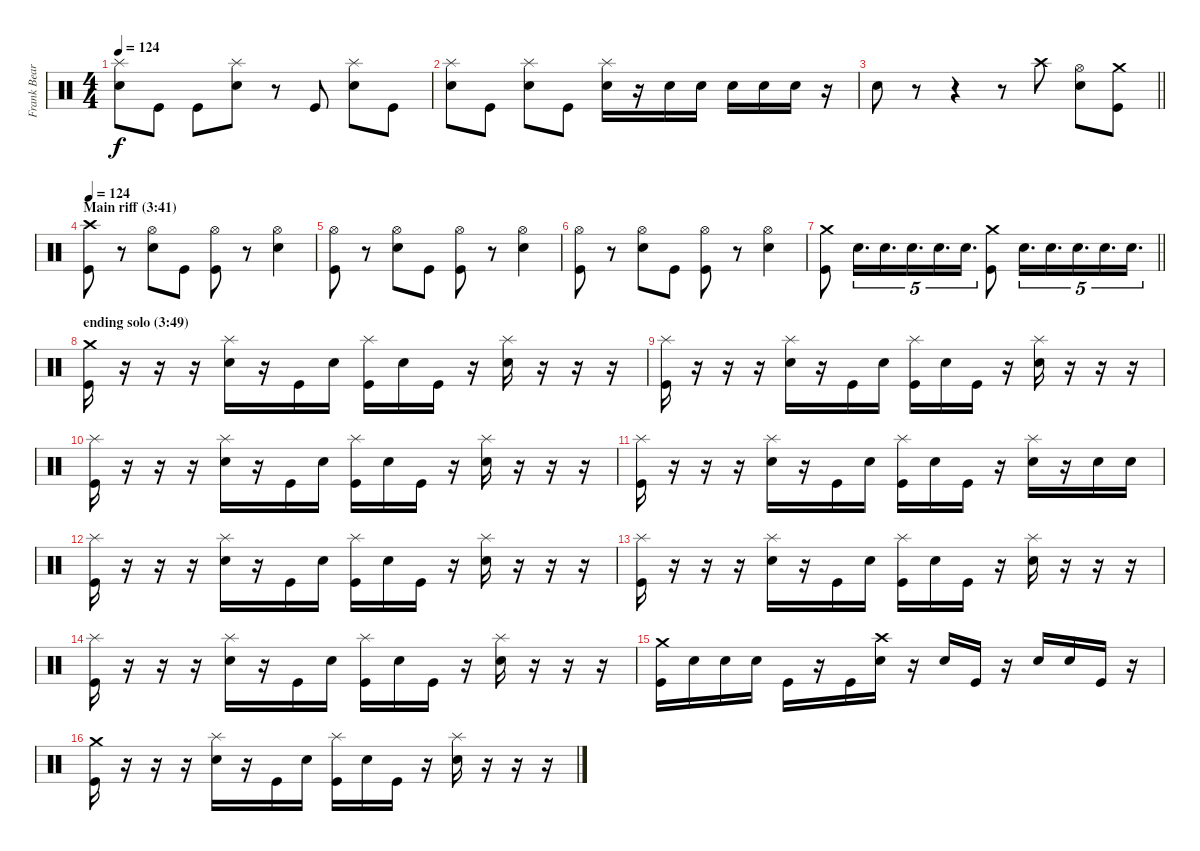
\track ("Frank Beard" "Frank Bear") {instrument percussion}
\staff {score}
\articulation defaults
\ts (4 4)
\tempo 124
\clef neutral
\ks c
("Splash (hit)" "Electric Snare (hit)").8{dy f} "Kick (hit)".8 "Kick (hit)".8 ("Splash (hit)" "Electric Snare (hit)").8 r.8 "Kick (hit)".8 ("Splash (hit)" "Electric Snare (hit)").8 "Kick (hit)".8 |
("Splash (hit)" "Electric Snare (hit)").8 "Kick (hit)".8 ("Splash (hit)" "Electric Snare (hit)").8 "Kick (hit)".8 ("Splash (hit)" "Electric Snare (hit)").16 r.16 "Electric Snare (hit)".16 "Electric Snare (hit)".16 "Electric Snare (hit)".16 "Electric Snare (hit)".16 "Electric Snare (hit)".16 r.16 |
\barLineRight lightlight "Electric Snare (hit)".8
r.8 r.4 r.8 "Crash high (hit)".8 ("Hi-Hat (open)" "Electric Snare (hit)").8 ("Crash medium (hit)" "Kick (hit)").8 |
\section ("" "Main riff (3:41)")
\tempo 124
("Crash high (hit)" "Kick (hit)").8 r.8 ("Hi-Hat (open)" "Electric Snare (hit)").8 "Kick (hit)".8 ("Hi-Hat (open)" "Kick (hit)").8 r.8 ("Hi-Hat (open)" "Electric Snare (hit)").4 |
("Hi-Hat (open)" "Kick (hit)").8 r.8 ("Hi-Hat (open)" "Electric Snare (hit)").8 "Kick (hit)".8 ("Hi-Hat (open)" "Kick (hit)").8 r.8 ("Hi-Hat (open)" "Electric Snare (hit)").4 |
("Hi-Hat (open)" "Kick (hit)").8 r.8 ("Hi-Hat (open)" "Electric Snare (hit)").8 "Kick (hit)".8 ("Hi-Hat (open)" "Kick (hit)").8 r.8 ("Hi-Hat (open)" "Electric Snare (hit)").4 |
\barLineRight lightlight
("Crash medium (hit)" "Kick (hit)").8 "Electric Snare (hit)".16{d tu (5 4)} "Electric Snare (hit)".16{d tu (5 4)} "Electric Snare (hit)".16{d tu (5 4)} "Electric Snare (hit)".16{d tu (5 4)} "Electric Snare (hit)".16{d tu (5 4)} ("Crash medium (hit)" "Kick (hit)").8 "Electric Snare (hit)".16{d tu (5 4)} "Electric Snare (hit)".16{d tu (5 4)} "Electric Snare (hit)".16{d tu (5 4)} "Electric Snare (hit)".16{d tu (5 4)} "Electric Snare (hit)".16{d tu (5 4)} |
\section ("" "ending solo (3:49)")
("Crash medium (hit)" "Kick (hit)").16 r.16 r.16 r.16 ("Splash (hit)" "Electric Snare (hit)").16 r.16 "Kick (hit)".16 "Electric Snare (hit)".16 ("Splash (hit)" "Kick (hit)").16 "Electric Snare (hit)".16 "Kick (hit)".16 r.16 ("Splash (hit)" "Electric Snare (hit)").16 r.16 r.16 r.16 |
("Splash (hit)" "Kick (hit)").16 r.16 r.16 r.16 ("Splash (hit)" "Electric Snare (hit)").16 r.16 "Kick (hit)".16 "Electric Snare (hit)".16 ("Splash (hit)" "Kick (hit)").16 "Electric Snare (hit)".16 "Kick (hit)".16 r.16 ("Splash (hit)" "Electric Snare (hit)").16 r.16 r.16 r.16 |
("Splash (hit)" "Kick (hit)").16 r.16 r.16 r.16 ("Splash (hit)" "Electric Snare (hit)").16 r.16 "Kick (hit)".16 "Electric Snare (hit)".16 ("Splash (hit)" "Kick (hit)").16 "Electric Snare (hit)".16 "Kick (hit)".16 r.16 ("Splash (hit)" "Electric Snare (hit)").16 r.16 r.16 r.16 |
("Splash (hit)" "Kick (hit)").16 r.16 r.16 r.16 ("Splash (hit)" "Electric Snare (hit)").16 r.16 "Kick (hit)".16 "Electric Snare (hit)".16 ("Splash (hit)" "Kick (hit)").16 "Electric Snare (hit)".16 "Kick (hit)".16 r.16 ("Splash (hit)" "Electric Snare (hit)").16 r.16 "Electric Snare (hit)".16 "Electric Snare (hit)".16 |
("Splash (hit)" "Kick (hit)").16 r.16 r.16 r.16 ("Splash (hit)" "Electric Snare (hit)").16 r.16 "Kick (hit)".16 "Electric Snare (hit)".16 ("Splash (hit)" "Kick (hit)").16 "Electric Snare (hit)".16 "Kick (hit)".16 r.16 ("Splash (hit)" "Electric Snare (hit)").16 r.16 r.16 r.16 |
("Splash (hit)" "Kick (hit)").16 r.16 r.16 r.16 ("Splash (hit)" "Electric Snare (hit)").16 r.16 "Kick (hit)".16 "Electric Snare (hit)".16 ("Splash (hit)" "Kick (hit)").16 "Electric Snare (hit)".16 "Kick (hit)".16 r.16 ("Splash (hit)" "Electric Snare (hit)").16 r.16 r.16 r.16 |
("Splash (hit)" "Kick (hit)").16 r.16 r.16 r.16 ("Splash (hit)" "Electric Snare (hit)").16 r.16 "Kick (hit)".16 "Electric Snare (hit)".16 ("Splash (hit)" "Kick (hit)").16 "Electric Snare (hit)".16 "Kick (hit)".16 r.16 ("Splash (hit)" "Electric Snare (hit)").16 r.16 r.16 r.16 |
("Crash medium (hit)" "Kick (hit)").16 "Electric Snare (hit)".16 "Electric Snare (hit)".16 "Electric Snare (hit)".16 "Kick (hit)".16 r.16 "Kick (hit)".16 ("Crash high (hit)" "Electric Snare (hit)").16 r.16 "Electric Snare (hit)".16 "Kick (hit)".16 r.16 "Electric Snare (hit)".16 "Electric Snare (hit)".16 "Kick (hit)".16 r.16 |
("Crash medium (hit)" "Kick (hit)").16 r.16 r.16 r.16 ("Splash (hit)" "Electric Snare (hit)").16 r.16 "Kick (hit)".16 "Electric Snare (hit)".16 ("Splash (hit)" "Kick (hit)").16 "Electric Snare (hit)".16 "Kick (hit)".16 r.16 ("Splash (hit)" "Electric Snare (hit)").16 r.16 r.16 r.16
